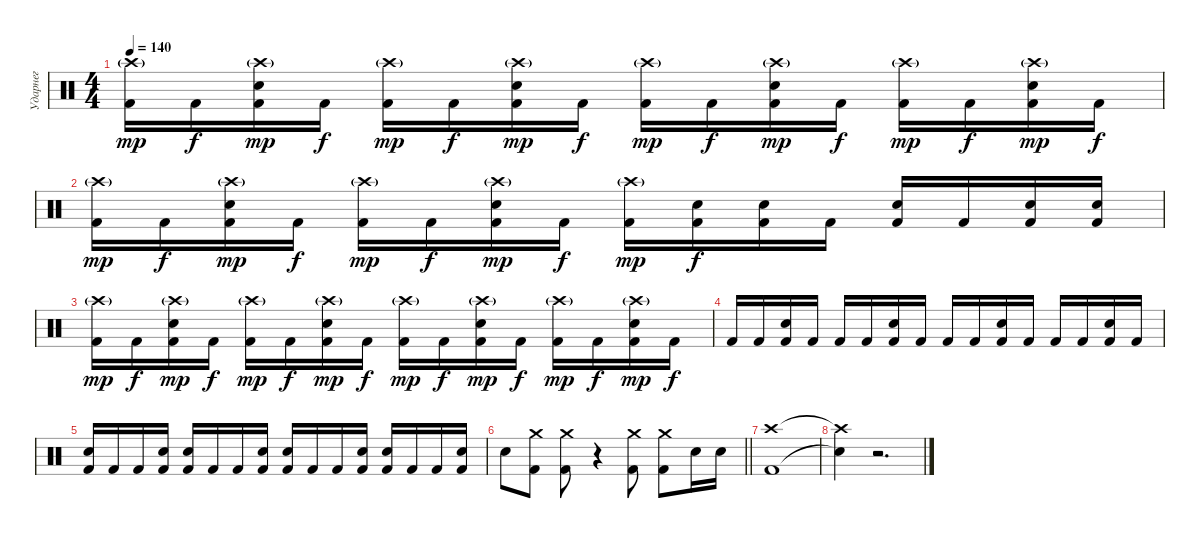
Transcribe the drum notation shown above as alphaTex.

\track ("Ударнег" "Ударнег") {instrument percussion}
\staff {score}
\articulation defaults
\ts (4 4)
\tempo 140
\clef neutral
\ks c
("Crash high (hit)"{g} "Kick (hit) 2").16{dy mp} "Kick (hit) 2".16{dy f} ("Crash high (hit)"{g} "Snare (hit) 2" "Kick (hit) 2").16{dy mp} "Kick (hit) 2".16{dy f} ("Crash high (hit)"{g} "Kick (hit) 2").16{dy mp} "Kick (hit) 2".16{dy f} ("Crash high (hit)"{g} "Snare (hit) 2" "Kick (hit) 2").16{dy mp} "Kick (hit) 2".16{dy f} ("Crash high (hit)"{g} "Kick (hit) 2").16{dy mp} "Kick (hit) 2".16{dy f} ("Crash high (hit)"{g} "Snare (hit) 2" "Kick (hit) 2").16{dy mp} "Kick (hit) 2".16{dy f} ("Crash high (hit)"{g} "Kick (hit) 2").16{dy mp} "Kick (hit) 2".16{dy f} ("Crash high (hit)"{g} "Snare (hit) 2" "Kick (hit) 2").16{dy mp} "Kick (hit) 2".16{dy f} |
("Crash high (hit)"{g} "Kick (hit) 2").16{dy mp} "Kick (hit) 2".16{dy f} ("Crash high (hit)"{g} "Snare (hit) 2" "Kick (hit) 2").16{dy mp} "Kick (hit) 2".16{dy f} ("Crash high (hit)"{g} "Kick (hit) 2").16{dy mp} "Kick (hit) 2".16{dy f} ("Crash high (hit)"{g} "Snare (hit) 2" "Kick (hit) 2").16{dy mp} "Kick (hit) 2".16{dy f} ("Crash high (hit)"{g} "Kick (hit) 2").16{dy mp} ("Snare (hit) 2" "Kick (hit) 2").16{dy f} ("Snare (hit) 2" "Kick (hit) 2").16 "Kick (hit) 2".16 ("Snare (hit) 2" "Kick (hit) 2").16 "Kick (hit) 2".16 ("Snare (hit) 2" "Kick (hit) 2").16 ("Snare (hit) 2" "Kick (hit) 2").16 |
("Crash high (hit)"{g} "Kick (hit) 2").16{dy mp} "Kick (hit) 2".16{dy f} ("Crash high (hit)"{g} "Snare (hit) 2" "Kick (hit) 2").16{dy mp} "Kick (hit) 2".16{dy f} ("Crash high (hit)"{g} "Kick (hit) 2").16{dy mp} "Kick (hit) 2".16{dy f} ("Crash high (hit)"{g} "Snare (hit) 2" "Kick (hit) 2").16{dy mp} "Kick (hit) 2".16{dy f} ("Crash high (hit)"{g} "Kick (hit) 2").16{dy mp} "Kick (hit) 2".16{dy f} ("Crash high (hit)"{g} "Snare (hit) 2" "Kick (hit) 2").16{dy mp} "Kick (hit) 2".16{dy f} ("Crash high (hit)"{g} "Kick (hit) 2").16{dy mp} "Kick (hit) 2".16{dy f} ("Crash high (hit)"{g} "Snare (hit) 2" "Kick (hit) 2").16{dy mp} "Kick (hit) 2".16{dy f} |
"Kick (hit) 2".16 "Kick (hit) 2".16 ("Snare (hit) 2" "Kick (hit) 2").16 "Kick (hit) 2".16 "Kick (hit) 2".16 "Kick (hit) 2".16 ("Snare (hit) 2" "Kick (hit) 2").16 "Kick (hit) 2".16 "Kick (hit) 2".16 "Kick (hit) 2".16 ("Snare (hit) 2" "Kick (hit) 2").16 "Kick (hit) 2".16 "Kick (hit) 2".16 "Kick (hit) 2".16 ("Snare (hit) 2" "Kick (hit) 2").16 "Kick (hit) 2".16 |
("Snare (hit) 2" "Kick (hit) 2").16 "Kick (hit) 2".16 "Kick (hit) 2".16 ("Snare (hit) 2" "Kick (hit) 2").16 ("Snare (hit) 2" "Kick (hit) 2").16 "Kick (hit) 2".16 "Kick (hit) 2".16 ("Snare (hit) 2" "Kick (hit) 2").16 ("Snare (hit) 2" "Kick (hit) 2").16 "Kick (hit) 2".16 "Kick (hit) 2".16 ("Snare (hit) 2" "Kick (hit) 2").16 ("Snare (hit) 2" "Kick (hit) 2").16 "Kick (hit) 2".16 "Kick (hit) 2".16 ("Snare (hit) 2" "Kick (hit) 2").16 |
\barLineRight lightlight "Snare (hit) 2".8
("Crash medium (hit)" "Kick (hit) 2").8 ("Crash medium (hit)" "Kick (hit) 2").8 r.4 ("Crash medium (hit)" "Kick (hit) 2").8 ("Crash medium (hit)" "Kick (hit) 2").8 "Snare (hit) 2".16 "Snare (hit) 2".16 |
("Crash high (hit)" "Kick (hit) 2").1 |
("Crash high (hit)"{t} "Snare (hit)"{t}).4 r.2{d}
